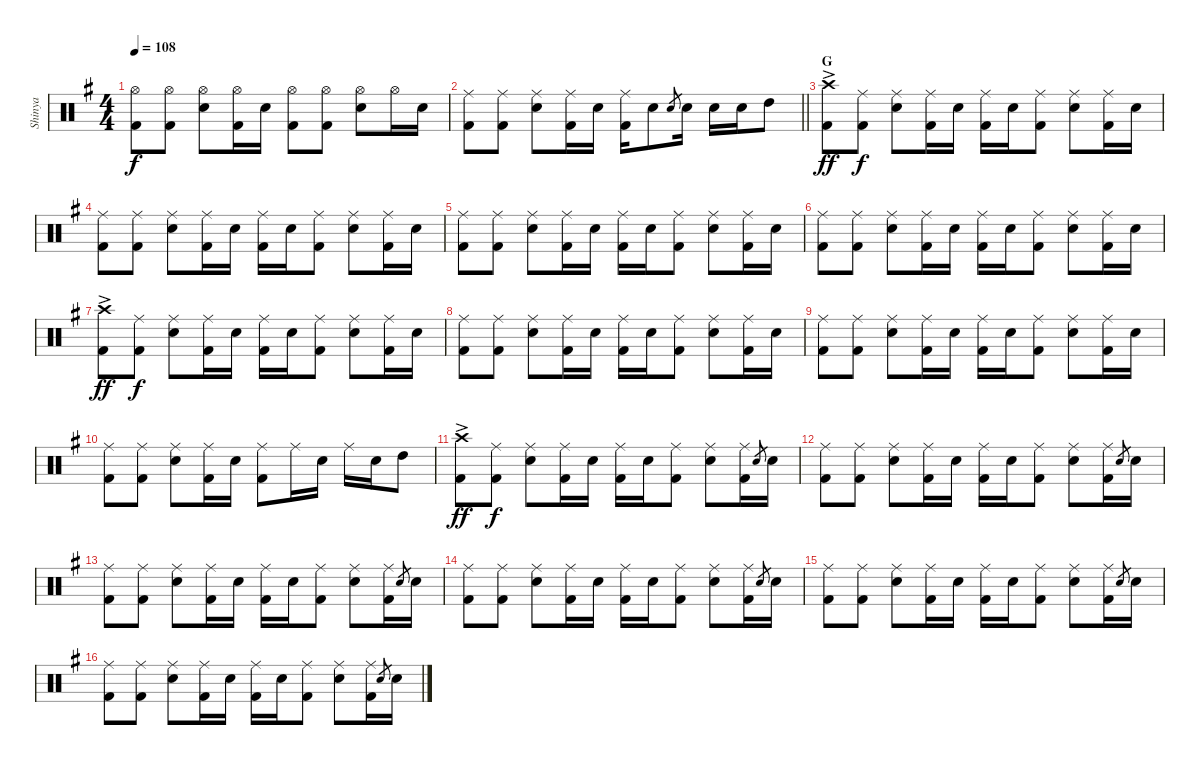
\track ("Shinya" "Shinya") {instrument percussion}
\staff {score}
\articulation defaults
\ts (4 4)
\tempo 108
\clef neutral
\ks eminor
("Hi-Hat (open)" "Kick (hit) 2").8{dy f} ("Hi-Hat (open)" "Kick (hit) 2").8 ("Hi-Hat (open)" "Snare (hit) 2").8 ("Hi-Hat (open)" "Kick (hit) 2").16 "Snare (hit) 2".16 ("Hi-Hat (open)" "Kick (hit) 2").8 ("Hi-Hat (open)" "Kick (hit) 2").8 ("Hi-Hat (open)" "Snare (hit) 2").8 "Hi-Hat (open)".16 "Snare (hit) 2".16 |
\barLineRight lightlight
("Ride (middle)" "Kick (hit) 2").8 ("Ride (middle)" "Kick (hit) 2").8 ("Ride (middle)" "Snare (hit) 2").8 ("Ride (middle)" "Kick (hit) 2").16 "Snare (hit) 2".16 ("Ride (middle)" "Kick (hit) 2").16 "Snare (hit) 2".8 "Snare (hit) 2".8{gr} "Snare (hit) 2".16 "Snare (hit) 2".16 "Snare (hit) 2".16 "High Tom (hit)".8 |
\section ("" "G")
("Crash high (hit)"{ac} "Kick (hit) 2").8{dy ff} ("Ride (middle)" "Kick (hit) 2").8{dy f} ("Ride (middle)" "Snare (hit) 2").8 ("Ride (middle)" "Kick (hit) 2").16 "Snare (hit) 2".16 ("Ride (middle)" "Kick (hit) 2").16 "Snare (hit) 2".16 ("Ride (middle)" "Kick (hit) 2").8 ("Ride (middle)" "Snare (hit) 2").8 ("Ride (middle)" "Kick (hit) 2").16 "Snare (hit) 2".16 |
("Ride (middle)" "Kick (hit) 2").8 ("Ride (middle)" "Kick (hit) 2").8 ("Ride (middle)" "Snare (hit) 2").8 ("Ride (middle)" "Kick (hit) 2").16 "Snare (hit) 2".16 ("Ride (middle)" "Kick (hit) 2").16 "Snare (hit) 2".16 ("Ride (middle)" "Kick (hit) 2").8 ("Ride (middle)" "Snare (hit) 2").8 ("Ride (middle)" "Kick (hit) 2").16 "Snare (hit) 2".16 |
("Ride (middle)" "Kick (hit) 2").8 ("Ride (middle)" "Kick (hit) 2").8 ("Ride (middle)" "Snare (hit) 2").8 ("Ride (middle)" "Kick (hit) 2").16 "Snare (hit) 2".16 ("Ride (middle)" "Kick (hit) 2").16 "Snare (hit) 2".16 ("Ride (middle)" "Kick (hit) 2").8 ("Ride (middle)" "Snare (hit) 2").8 ("Ride (middle)" "Kick (hit) 2").16 "Snare (hit) 2".16 |
("Ride (middle)" "Kick (hit) 2").8 ("Ride (middle)" "Kick (hit) 2").8 ("Ride (middle)" "Snare (hit) 2").8 ("Ride (middle)" "Kick (hit) 2").16 "Snare (hit) 2".16 ("Ride (middle)" "Kick (hit) 2").16 "Snare (hit) 2".16 ("Ride (middle)" "Kick (hit) 2").8 ("Ride (middle)" "Snare (hit) 2").8 ("Ride (middle)" "Kick (hit) 2").16 "Snare (hit) 2".16 |
("Crash high (hit)"{ac} "Kick (hit) 2").8{dy ff} ("Ride (middle)" "Kick (hit) 2").8{dy f} ("Ride (middle)" "Snare (hit) 2").8 ("Ride (middle)" "Kick (hit) 2").16 "Snare (hit) 2".16 ("Ride (middle)" "Kick (hit) 2").16 "Snare (hit) 2".16 ("Ride (middle)" "Kick (hit) 2").8 ("Ride (middle)" "Snare (hit) 2").8 ("Ride (middle)" "Kick (hit) 2").16 "Snare (hit) 2".16 |
("Ride (middle)" "Kick (hit) 2").8 ("Ride (middle)" "Kick (hit) 2").8 ("Ride (middle)" "Snare (hit) 2").8 ("Ride (middle)" "Kick (hit) 2").16 "Snare (hit) 2".16 ("Ride (middle)" "Kick (hit) 2").16 "Snare (hit) 2".16 ("Ride (middle)" "Kick (hit) 2").8 ("Ride (middle)" "Snare (hit) 2").8 ("Ride (middle)" "Kick (hit) 2").16 "Snare (hit) 2".16 |
("Ride (middle)" "Kick (hit) 2").8 ("Ride (middle)" "Kick (hit) 2").8 ("Ride (middle)" "Snare (hit) 2").8 ("Ride (middle)" "Kick (hit) 2").16 "Snare (hit) 2".16 ("Ride (middle)" "Kick (hit) 2").16 "Snare (hit) 2".16 ("Ride (middle)" "Kick (hit) 2").8 ("Ride (middle)" "Snare (hit) 2").8 ("Ride (middle)" "Kick (hit) 2").16 "Snare (hit) 2".16 |
("Ride (middle)" "Kick (hit) 2").8 ("Ride (middle)" "Kick (hit) 2").8 ("Ride (middle)" "Snare (hit) 2").8 ("Ride (middle)" "Kick (hit) 2").16 "Snare (hit) 2".16 ("Ride (middle)" "Kick (hit) 2").8 "Ride (middle)".16 "Snare (hit) 2".16 "Ride (middle)".16 "Snare (hit) 2".16 "High Tom (hit)".8 |
("Crash high (hit)"{ac} "Kick (hit) 2").8{dy ff} ("Ride (middle)" "Kick (hit) 2").8{dy f} ("Ride (middle)" "Snare (hit) 2").8 ("Ride (middle)" "Kick (hit) 2").16 "Snare (hit) 2".16 ("Ride (middle)" "Kick (hit) 2").16 "Snare (hit) 2".16 ("Ride (middle)" "Kick (hit) 2").8 ("Ride (middle)" "Snare (hit) 2").8 ("Ride (middle)" "Kick (hit) 2").16 "Snare (hit) 2".8{gr} "Snare (hit) 2".16 |
("Ride (middle)" "Kick (hit) 2").8 ("Ride (middle)" "Kick (hit) 2").8 ("Ride (middle)" "Snare (hit) 2").8 ("Ride (middle)" "Kick (hit) 2").16 "Snare (hit) 2".16 ("Ride (middle)" "Kick (hit) 2").16 "Snare (hit) 2".16 ("Ride (middle)" "Kick (hit) 2").8 ("Ride (middle)" "Snare (hit) 2").8 ("Ride (middle)" "Kick (hit) 2").16 "Snare (hit) 2".8{gr} "Snare (hit) 2".16 |
("Ride (middle)" "Kick (hit) 2").8 ("Ride (middle)" "Kick (hit) 2").8 ("Ride (middle)" "Snare (hit) 2").8 ("Ride (middle)" "Kick (hit) 2").16 "Snare (hit) 2".16 ("Ride (middle)" "Kick (hit) 2").16 "Snare (hit) 2".16 ("Ride (middle)" "Kick (hit) 2").8 ("Ride (middle)" "Snare (hit) 2").8 ("Ride (middle)" "Kick (hit) 2").16 "Snare (hit) 2".8{gr} "Snare (hit) 2".16 |
("Ride (middle)" "Kick (hit) 2").8 ("Ride (middle)" "Kick (hit) 2").8 ("Ride (middle)" "Snare (hit) 2").8 ("Ride (middle)" "Kick (hit) 2").16 "Snare (hit) 2".16 ("Ride (middle)" "Kick (hit) 2").16 "Snare (hit) 2".16 ("Ride (middle)" "Kick (hit) 2").8 ("Ride (middle)" "Snare (hit) 2").8 ("Ride (middle)" "Kick (hit) 2").16 "Snare (hit) 2".8{gr} "Snare (hit) 2".16 |
("Ride (middle)" "Kick (hit) 2").8 ("Ride (middle)" "Kick (hit) 2").8 ("Ride (middle)" "Snare (hit) 2").8 ("Ride (middle)" "Kick (hit) 2").16 "Snare (hit) 2".16 ("Ride (middle)" "Kick (hit) 2").16 "Snare (hit) 2".16 ("Ride (middle)" "Kick (hit) 2").8 ("Ride (middle)" "Snare (hit) 2").8 ("Ride (middle)" "Kick (hit) 2").16 "Snare (hit) 2".8{gr} "Snare (hit) 2".16 |
("Ride (middle)" "Kick (hit) 2").8 ("Ride (middle)" "Kick (hit) 2").8 ("Ride (middle)" "Snare (hit) 2").8 ("Ride (middle)" "Kick (hit) 2").16 "Snare (hit) 2".16 ("Ride (middle)" "Kick (hit) 2").16 "Snare (hit) 2".16 ("Ride (middle)" "Kick (hit) 2").8 ("Ride (middle)" "Snare (hit) 2").8 ("Ride (middle)" "Kick (hit) 2").16 "Snare (hit) 2".8{gr} "Snare (hit) 2".16
